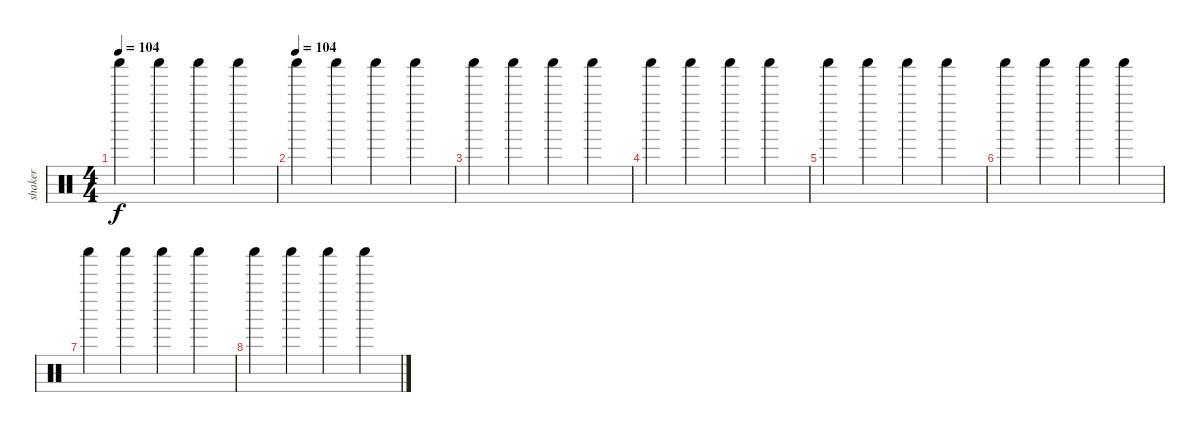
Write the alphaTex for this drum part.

\track ("shaker" "shaker") {instrument percussion}
\staff {score}
\articulation defaults
\ts (4 4)
\tempo 104
\clef neutral
\ks c "Shaker (hit)".4{dy f} "Shaker (hit)".4 "Shaker (hit)".4 "Shaker (hit)".4
|
\tempo (104)
"Shaker (hit)".4 "Shaker (hit)".4 "Shaker (hit)".4 "Shaker (hit)".4 |
"Shaker (hit)".4 "Shaker (hit)".4 "Shaker (hit)".4 "Shaker (hit)".4 |
"Shaker (hit)".4 "Shaker (hit)".4 "Shaker (hit)".4 "Shaker (hit)".4 |
"Shaker (hit)".4 "Shaker (hit)".4 "Shaker (hit)".4 "Shaker (hit)".4 |
"Shaker (hit)".4 "Shaker (hit)".4 "Shaker (hit)".4 "Shaker (hit)".4 |
"Shaker (hit)".4 "Shaker (hit)".4 "Shaker (hit)".4 "Shaker (hit)".4 |
"Shaker (hit)".4 "Shaker (hit)".4 "Shaker (hit)".4 "Shaker (hit)".4
